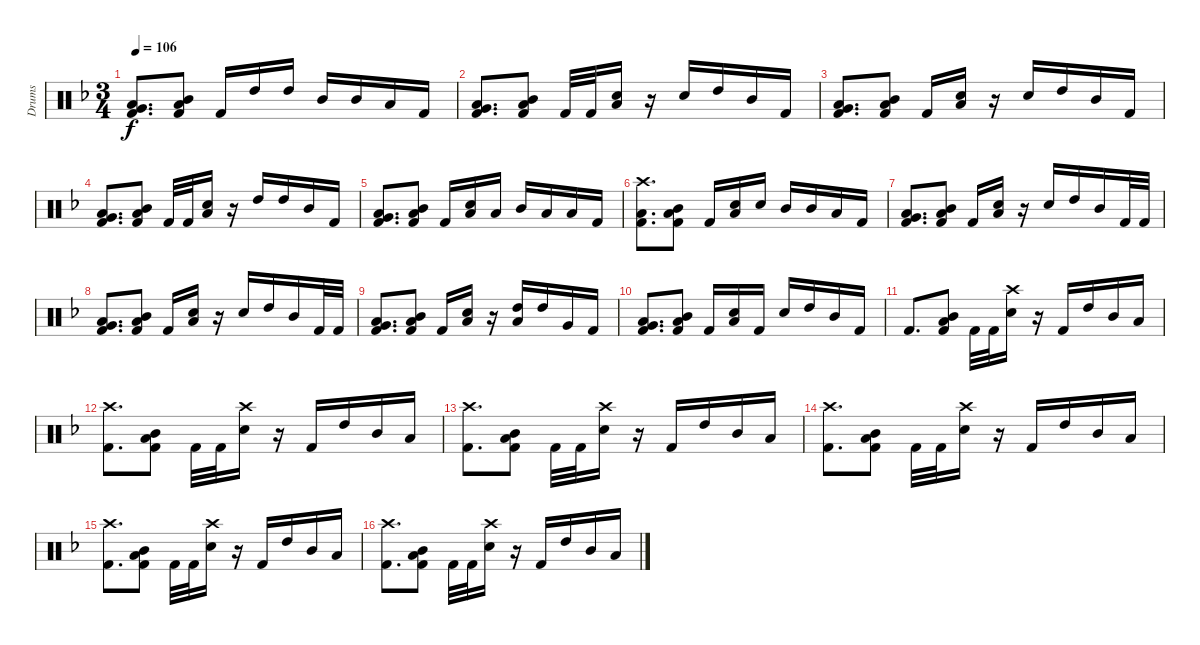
\track ("Drums" "Drums") {instrument percussion}
\staff {score}
\articulation defaults
\ts (3 4)
\tempo 106
\clef neutral
\ks dminor
("Low Tom (hit)" "Very Low Tom (hit)" "Kick (hit) 2").8{d dy f} ("Mid Tom (hit)" "Low Tom (hit)" "Kick (hit) 2").8 "Kick (hit) 2".16 "High Tom (hit)".16 "High Tom (hit)".16 "Mid Tom (hit)".16 "Mid Tom (hit)".16 "Low Tom (hit)".16 "Kick (hit) 2".16 |
("Low Tom (hit)" "Very Low Tom (hit)" "Kick (hit) 2").8{d} ("Mid Tom (hit)" "Low Tom (hit)" "Kick (hit) 2").8 "Kick (hit) 2".32 "Kick (hit) 2".32 ("Snare (hit) 2" "Low Tom (hit)").16 r.16 "Snare (hit) 2".16 "High Tom (hit)".16 "Mid Tom (hit)".16 "Kick (hit) 2".16 |
("Low Tom (hit)" "Very Low Tom (hit)" "Kick (hit) 2").8{d} ("Mid Tom (hit)" "Low Tom (hit)" "Kick (hit) 2").8 "Kick (hit) 2".16 ("Snare (hit) 2" "Low Tom (hit)").16 r.16 "Snare (hit) 2".16 "High Tom (hit)".16 "Mid Tom (hit)".16 "Kick (hit) 2".16 |
("Low Tom (hit)" "Very Low Tom (hit)" "Kick (hit) 2").8{d} ("Mid Tom (hit)" "Low Tom (hit)" "Kick (hit) 2").8 "Kick (hit) 2".32 "Kick (hit) 2".32 ("Snare (hit) 2" "Low Tom (hit)").16 r.16 "High Tom (hit)".16 "High Tom (hit)".16 "Mid Tom (hit)".16 "Kick (hit) 2".16 |
("Low Tom (hit)" "Very Low Tom (hit)" "Kick (hit) 2").8{d} ("Mid Tom (hit)" "Low Tom (hit)" "Kick (hit) 2").8 "Kick (hit) 2".16 ("Snare (hit) 2" "Low Tom (hit)").16 "Low Tom (hit)".16 "Mid Tom (hit)".16 "Low Tom (hit)".16 "Low Tom (hit)".16 "Kick (hit) 2".16 |
("Crash high (hit)" "Low Tom (hit)" "Kick (hit) 2").8{d} ("Mid Tom (hit)" "Low Tom (hit)" "Kick (hit) 2").8 "Kick (hit) 2".16 ("Snare (hit) 2" "Low Tom (hit)").16 "Snare (hit) 2".16 "Mid Tom (hit)".16 "Mid Tom (hit)".16 "Low Tom (hit)".16 "Kick (hit) 2".16 |
("Low Tom (hit)" "Very Low Tom (hit)" "Kick (hit) 2").8{d} ("Mid Tom (hit)" "Low Tom (hit)" "Kick (hit) 2").8 "Kick (hit) 2".16 ("Snare (hit) 2" "Low Tom (hit)").16 r.16 "Snare (hit) 2".16 "High Tom (hit)".16 "Mid Tom (hit)".16 "Kick (hit) 2".32 "Kick (hit) 2".32 |
("Low Tom (hit)" "Very Low Tom (hit)" "Kick (hit) 2").8{d} ("Mid Tom (hit)" "Low Tom (hit)" "Kick (hit) 2").8 "Kick (hit) 2".16 ("Snare (hit) 2" "Low Tom (hit)").16 r.16 "Snare (hit) 2".16 "High Tom (hit)".16 "Mid Tom (hit)".16 "Kick (hit) 2".32 "Kick (hit) 2".32 |
("Low Tom (hit)" "Very Low Tom (hit)" "Kick (hit) 2").8{d} ("Mid Tom (hit)" "Low Tom (hit)" "Kick (hit) 2").8 "Kick (hit) 2".16 ("Snare (hit) 2" "Low Tom (hit)").16 r.16 ("High Tom (hit)" "Low Tom (hit)").16 "High Tom (hit)".16 "Very Low Tom (hit)".16 "Kick (hit) 2".16 |
("Low Tom (hit)" "Very Low Tom (hit)" "Kick (hit) 2").8{d} ("Mid Tom (hit)" "Low Tom (hit)" "Kick (hit) 2").8 "Kick (hit) 2".16 ("Snare (hit) 2" "Low Tom (hit)").16 "Kick (hit) 2".16 "Snare (hit) 2".16 "High Tom (hit)".16 "Mid Tom (hit)".16 "Kick (hit) 2".16 |
"Kick (hit) 2".8{d} ("Mid Tom (hit)" "Low Tom (hit)" "Kick (hit) 2").8 "Kick (hit) 2".32 "Kick (hit) 2".32 ("Crash high (hit)" "Snare (hit) 2").16 r.16 "Kick (hit) 2".16 "High Tom (hit)".16 "Mid Tom (hit)".16 "Low Tom (hit)".16 |
("Crash high (hit)" "Kick (hit) 2").8{d} ("Mid Tom (hit)" "Low Tom (hit)" "Kick (hit) 2").8 "Kick (hit) 2".32 "Kick (hit) 2".32 ("Crash high (hit)" "Snare (hit) 2").16 r.16 "Kick (hit) 2".16 "High Tom (hit)".16 "Mid Tom (hit)".16 "Low Tom (hit)".16 |
("Crash high (hit)" "Kick (hit) 2").8{d} ("Mid Tom (hit)" "Low Tom (hit)" "Kick (hit) 2").8 "Kick (hit) 2".32 "Kick (hit) 2".32 ("Crash high (hit)" "Snare (hit) 2").16 r.16 "Kick (hit) 2".16 "High Tom (hit)".16 "Mid Tom (hit)".16 "Low Tom (hit)".16 |
("Crash high (hit)" "Kick (hit) 2").8{d} ("Mid Tom (hit)" "Low Tom (hit)" "Kick (hit) 2").8 "Kick (hit) 2".32 "Kick (hit) 2".32 ("Crash high (hit)" "Snare (hit) 2").16 r.16 "Kick (hit) 2".16 "High Tom (hit)".16 "Mid Tom (hit)".16 "Low Tom (hit)".16 |
("Crash high (hit)" "Kick (hit) 2").8{d} ("Mid Tom (hit)" "Low Tom (hit)" "Kick (hit) 2").8 "Kick (hit) 2".32 "Kick (hit) 2".32 ("Crash high (hit)" "Snare (hit) 2").16 r.16 "Kick (hit) 2".16 "High Tom (hit)".16 "Mid Tom (hit)".16 "Low Tom (hit)".16 |
("Crash high (hit)" "Kick (hit) 2").8{d} ("Mid Tom (hit)" "Low Tom (hit)" "Kick (hit) 2").8 "Kick (hit) 2".32 "Kick (hit) 2".32 ("Crash high (hit)" "Snare (hit) 2").16 r.16 "Kick (hit) 2".16 "High Tom (hit)".16 "Mid Tom (hit)".16 "Low Tom (hit)".16
